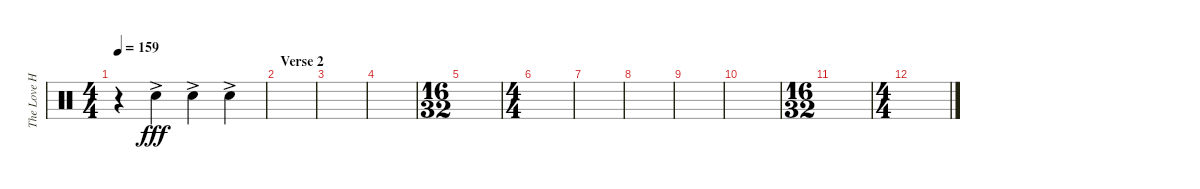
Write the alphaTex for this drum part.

\track ("The Love Haters (Hand Clap)(Drums)" "The Love H") {instrument percussion}
\staff {score}
\articulation defaults
\ts (4 4)
\tempo 159
\clef neutral
\ks c
r.4{dy fff} "Hand Clap (hit)"{ac}.4 "Hand Clap (hit)"{ac}.4 "Hand Clap (hit)"{ac}.4 |
\section ("" "Verse 2")
|
|
|
\ts (16 32)
|
\ts (4 4)
|
|
|
|
|
\ts (16 32)
|
\ts (4 4)
